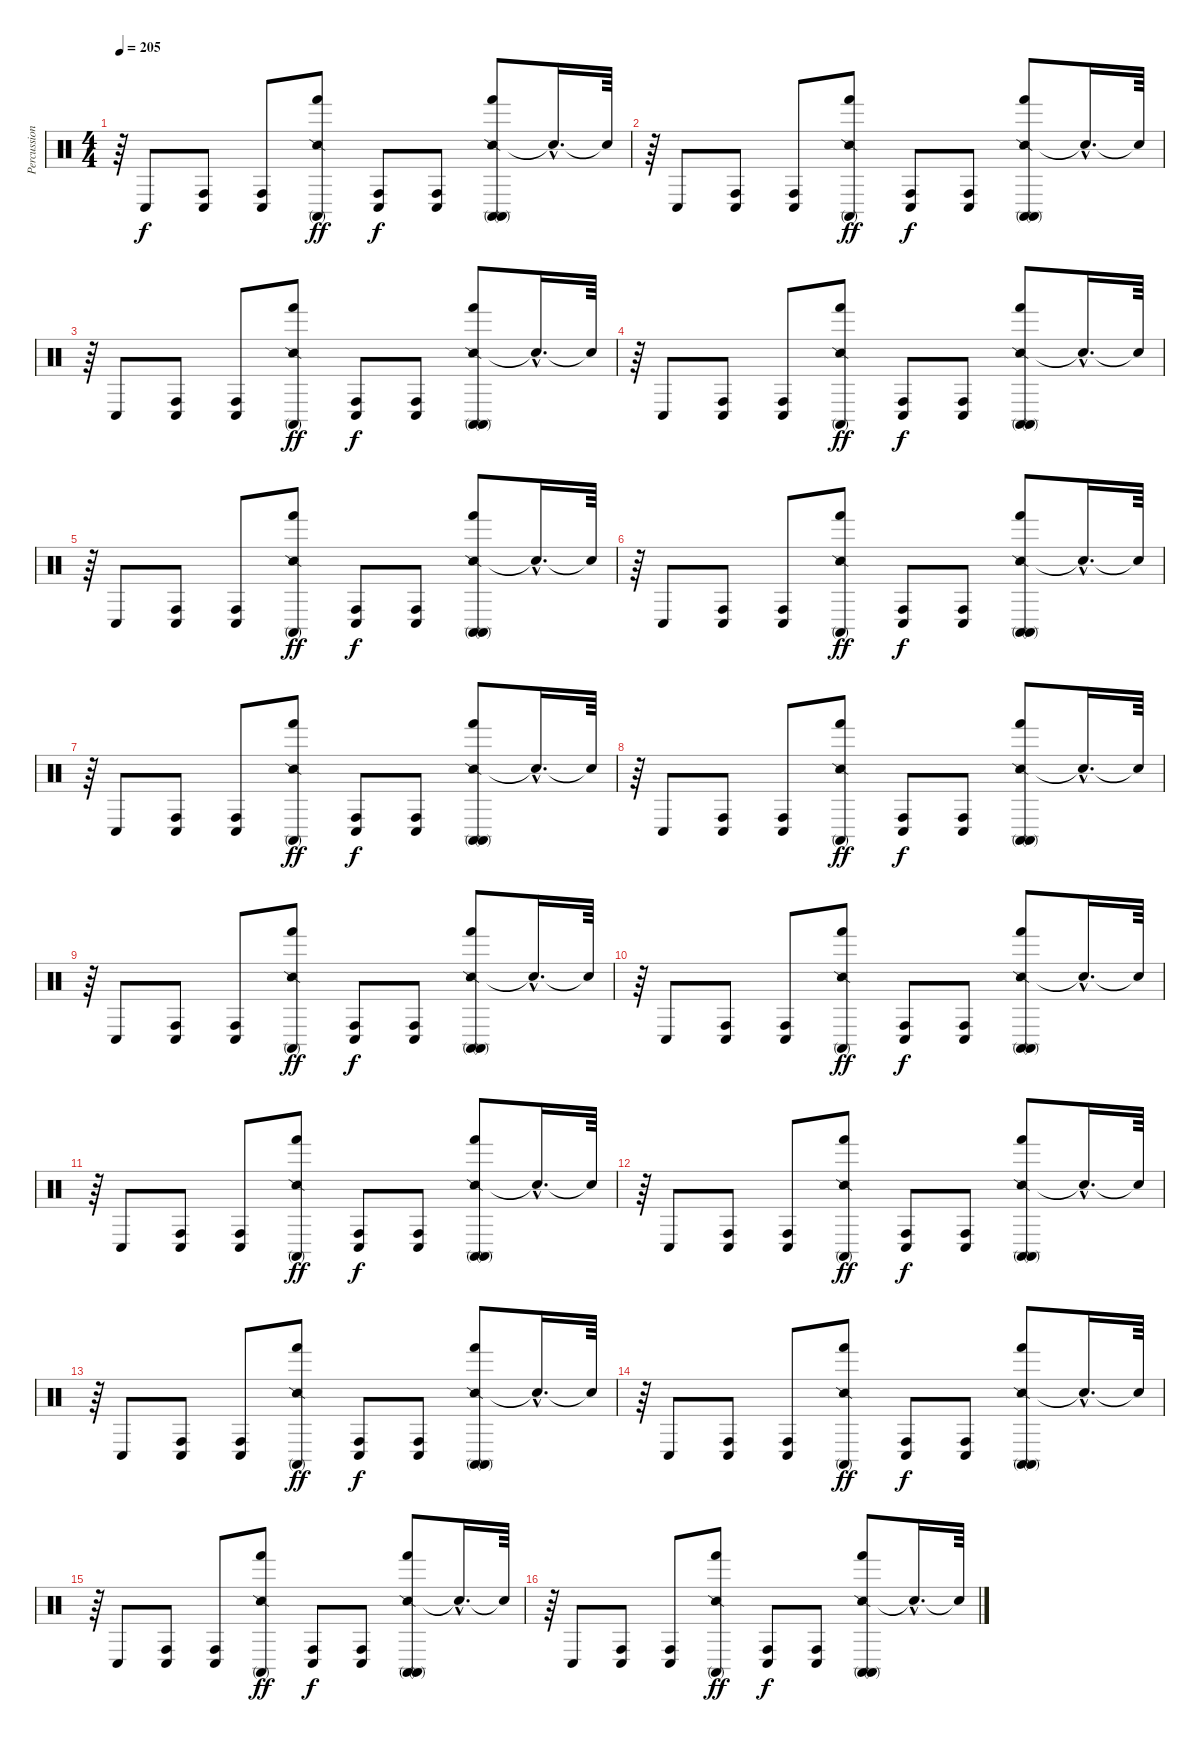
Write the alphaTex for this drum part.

\track ("Percussion" "Percussion") {instrument percussion}
\staff {score}
\articulation defaults
\ts (4 4)
\tempo 205
\clef neutral
\ks c
r.64{dy f} "Conga low (hit)".8 ("Conga high (hit)" "Conga low (hit)").8 ("Conga high (hit)" "Conga low (hit)").8 ("Snare (side stick) 2" "Hand (hit)" "Conga high (mute)").8{dy ff} ("Conga high (hit)" "Conga low (hit)").8{dy f} ("Conga high (hit)" "Conga low (hit)").8 ("Snare (side stick) 2" "Hand (hit)" "Conga high (mute)" "Conga high (mute)").8 "Snare (hit)"{hac t}.16{d} "Snare (hit)"{t}.64 |
r.64 "Conga low (hit)".8 ("Conga high (hit)" "Conga low (hit)").8 ("Conga high (hit)" "Conga low (hit)").8 ("Snare (side stick) 2" "Hand (hit)" "Conga high (mute)").8{dy ff} ("Conga high (hit)" "Conga low (hit)").8{dy f} ("Conga high (hit)" "Conga low (hit)").8 ("Snare (side stick) 2" "Hand (hit)" "Conga high (mute)" "Conga high (mute)").8 "Snare (hit)"{hac t}.16{d} "Snare (hit)"{t}.64 |
r.64 "Conga low (hit)".8 ("Conga high (hit)" "Conga low (hit)").8 ("Conga high (hit)" "Conga low (hit)").8 ("Snare (side stick) 2" "Hand (hit)" "Conga high (mute)").8{dy ff} ("Conga high (hit)" "Conga low (hit)").8{dy f} ("Conga high (hit)" "Conga low (hit)").8 ("Snare (side stick) 2" "Hand (hit)" "Conga high (mute)" "Conga high (mute)").8 "Snare (hit)"{hac t}.16{d} "Snare (hit)"{t}.64 |
r.64 "Conga low (hit)".8 ("Conga high (hit)" "Conga low (hit)").8 ("Conga high (hit)" "Conga low (hit)").8 ("Snare (side stick) 2" "Hand (hit)" "Conga high (mute)").8{dy ff} ("Conga high (hit)" "Conga low (hit)").8{dy f} ("Conga high (hit)" "Conga low (hit)").8 ("Snare (side stick) 2" "Hand (hit)" "Conga high (mute)" "Conga high (mute)").8 "Snare (hit)"{hac t}.16{d} "Snare (hit)"{t}.64 |
r.64 "Conga low (hit)".8 ("Conga high (hit)" "Conga low (hit)").8 ("Conga high (hit)" "Conga low (hit)").8 ("Snare (side stick) 2" "Hand (hit)" "Conga high (mute)").8{dy ff} ("Conga high (hit)" "Conga low (hit)").8{dy f} ("Conga high (hit)" "Conga low (hit)").8 ("Snare (side stick) 2" "Hand (hit)" "Conga high (mute)" "Conga high (mute)").8 "Snare (hit)"{hac t}.16{d} "Snare (hit)"{t}.64 |
r.64 "Conga low (hit)".8 ("Conga high (hit)" "Conga low (hit)").8 ("Conga high (hit)" "Conga low (hit)").8 ("Snare (side stick) 2" "Hand (hit)" "Conga high (mute)").8{dy ff} ("Conga high (hit)" "Conga low (hit)").8{dy f} ("Conga high (hit)" "Conga low (hit)").8 ("Snare (side stick) 2" "Hand (hit)" "Conga high (mute)" "Conga high (mute)").8 "Snare (hit)"{hac t}.16{d} "Snare (hit)"{t}.64 |
r.64 "Conga low (hit)".8 ("Conga high (hit)" "Conga low (hit)").8 ("Conga high (hit)" "Conga low (hit)").8 ("Snare (side stick) 2" "Hand (hit)" "Conga high (mute)").8{dy ff} ("Conga high (hit)" "Conga low (hit)").8{dy f} ("Conga high (hit)" "Conga low (hit)").8 ("Snare (side stick) 2" "Hand (hit)" "Conga high (mute)" "Conga high (mute)").8 "Snare (hit)"{hac t}.16{d} "Snare (hit)"{t}.64 |
r.64 "Conga low (hit)".8 ("Conga high (hit)" "Conga low (hit)").8 ("Conga high (hit)" "Conga low (hit)").8 ("Snare (side stick) 2" "Hand (hit)" "Conga high (mute)").8{dy ff} ("Conga high (hit)" "Conga low (hit)").8{dy f} ("Conga high (hit)" "Conga low (hit)").8 ("Snare (side stick) 2" "Hand (hit)" "Conga high (mute)" "Conga high (mute)").8 "Snare (hit)"{hac t}.16{d} "Snare (hit)"{t}.64 |
r.64 "Conga low (hit)".8 ("Conga high (hit)" "Conga low (hit)").8 ("Conga high (hit)" "Conga low (hit)").8 ("Snare (side stick) 2" "Hand (hit)" "Conga high (mute)").8{dy ff} ("Conga high (hit)" "Conga low (hit)").8{dy f} ("Conga high (hit)" "Conga low (hit)").8 ("Snare (side stick) 2" "Hand (hit)" "Conga high (mute)" "Conga high (mute)").8 "Snare (hit)"{hac t}.16{d} "Snare (hit)"{t}.64 |
r.64 "Conga low (hit)".8 ("Conga high (hit)" "Conga low (hit)").8 ("Conga high (hit)" "Conga low (hit)").8 ("Snare (side stick) 2" "Hand (hit)" "Conga high (mute)").8{dy ff} ("Conga high (hit)" "Conga low (hit)").8{dy f} ("Conga high (hit)" "Conga low (hit)").8 ("Snare (side stick) 2" "Hand (hit)" "Conga high (mute)" "Conga high (mute)").8 "Snare (hit)"{hac t}.16{d} "Snare (hit)"{t}.64 |
r.64 "Conga low (hit)".8 ("Conga high (hit)" "Conga low (hit)").8 ("Conga high (hit)" "Conga low (hit)").8 ("Snare (side stick) 2" "Hand (hit)" "Conga high (mute)").8{dy ff} ("Conga high (hit)" "Conga low (hit)").8{dy f} ("Conga high (hit)" "Conga low (hit)").8 ("Snare (side stick) 2" "Hand (hit)" "Conga high (mute)" "Conga high (mute)").8 "Snare (hit)"{hac t}.16{d} "Snare (hit)"{t}.64 |
r.64 "Conga low (hit)".8 ("Conga high (hit)" "Conga low (hit)").8 ("Conga high (hit)" "Conga low (hit)").8 ("Snare (side stick) 2" "Hand (hit)" "Conga high (mute)").8{dy ff} ("Conga high (hit)" "Conga low (hit)").8{dy f} ("Conga high (hit)" "Conga low (hit)").8 ("Snare (side stick) 2" "Hand (hit)" "Conga high (mute)" "Conga high (mute)").8 "Snare (hit)"{hac t}.16{d} "Snare (hit)"{t}.64 |
r.64 "Conga low (hit)".8 ("Conga high (hit)" "Conga low (hit)").8 ("Conga high (hit)" "Conga low (hit)").8 ("Snare (side stick) 2" "Hand (hit)" "Conga high (mute)").8{dy ff} ("Conga high (hit)" "Conga low (hit)").8{dy f} ("Conga high (hit)" "Conga low (hit)").8 ("Snare (side stick) 2" "Hand (hit)" "Conga high (mute)" "Conga high (mute)").8 "Snare (hit)"{hac t}.16{d} "Snare (hit)"{t}.64 |
r.64 "Conga low (hit)".8 ("Conga high (hit)" "Conga low (hit)").8 ("Conga high (hit)" "Conga low (hit)").8 ("Snare (side stick) 2" "Hand (hit)" "Conga high (mute)").8{dy ff} ("Conga high (hit)" "Conga low (hit)").8{dy f} ("Conga high (hit)" "Conga low (hit)").8 ("Snare (side stick) 2" "Hand (hit)" "Conga high (mute)" "Conga high (mute)").8 "Snare (hit)"{hac t}.16{d} "Snare (hit)"{t}.64 |
r.64 "Conga low (hit)".8 ("Conga high (hit)" "Conga low (hit)").8 ("Conga high (hit)" "Conga low (hit)").8 ("Snare (side stick) 2" "Hand (hit)" "Conga high (mute)").8{dy ff} ("Conga high (hit)" "Conga low (hit)").8{dy f} ("Conga high (hit)" "Conga low (hit)").8 ("Snare (side stick) 2" "Hand (hit)" "Conga high (mute)" "Conga high (mute)").8 "Snare (hit)"{hac t}.16{d} "Snare (hit)"{t}.64 |
r.64 "Conga low (hit)".8 ("Conga high (hit)" "Conga low (hit)").8 ("Conga high (hit)" "Conga low (hit)").8 ("Snare (side stick) 2" "Hand (hit)" "Conga high (mute)").8{dy ff} ("Conga high (hit)" "Conga low (hit)").8{dy f} ("Conga high (hit)" "Conga low (hit)").8 ("Snare (side stick) 2" "Hand (hit)" "Conga high (mute)" "Conga high (mute)").8 "Snare (hit)"{hac t}.16{d} "Snare (hit)"{t}.64
